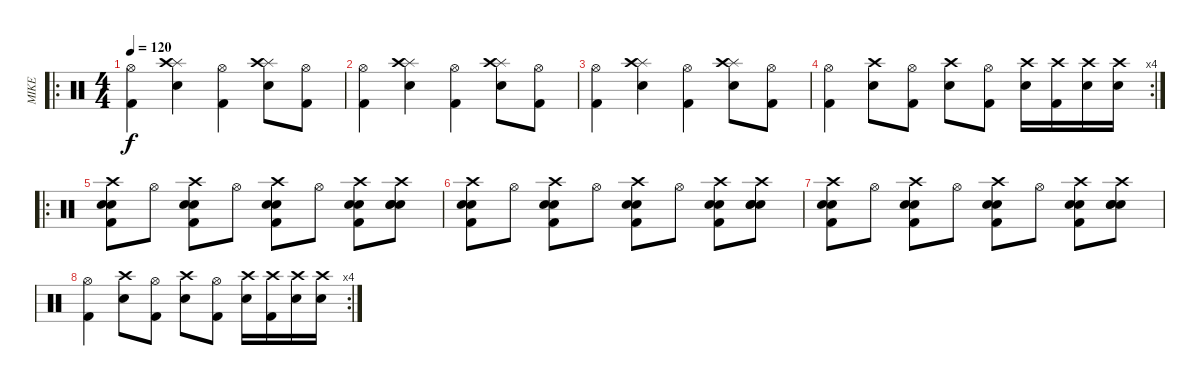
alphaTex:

\track ("MIKE" "MIKE") {instrument percussion}
\staff {score}
\articulation defaults
\ro
\ts (4 4)
\tempo 120
\clef neutral
\ks c
("Hi-Hat (open)" "Kick (hit) 2").4{dy f} ("Splash (hit)" "Crash high (hit)" "Snare (hit) 2").4 ("Hi-Hat (open)" "Kick (hit) 2").4 ("Splash (hit)" "Crash high (hit)" "Snare (hit) 2").8 ("Hi-Hat (open)" "Kick (hit) 2").8 |
("Hi-Hat (open)" "Kick (hit) 2").4 ("Splash (hit)" "Crash high (hit)" "Snare (hit) 2").4 ("Hi-Hat (open)" "Kick (hit) 2").4 ("Splash (hit)" "Crash high (hit)" "Snare (hit) 2").8 ("Hi-Hat (open)" "Kick (hit) 2").8 |
("Hi-Hat (open)" "Kick (hit) 2").4 ("Splash (hit)" "Crash high (hit)" "Snare (hit) 2").4 ("Hi-Hat (open)" "Kick (hit) 2").4 ("Splash (hit)" "Crash high (hit)" "Snare (hit) 2").8 ("Hi-Hat (open)" "Kick (hit) 2").8 |
\rc 4
("Hi-Hat (open)" "Kick (hit) 2").4 ("Crash high (hit)" "Snare (hit) 2").8 ("Hi-Hat (open)" "Kick (hit) 2").8 ("Crash high (hit)" "Snare (hit) 2").8 ("Hi-Hat (open)" "Kick (hit) 2").8 ("Crash high (hit)" "Snare (hit) 2").16 ("Crash high (hit)" "Kick (hit) 2").16 ("Crash high (hit)" "Snare (hit) 2").16 ("Crash high (hit)" "Snare (hit) 2").16 |
\ro
("Crash high (hit)" "Electric Snare (hit)" "Snare (hit) 2" "Kick (hit) 2").8 "Hi-Hat (open)".8 ("Crash high (hit)" "Electric Snare (hit)" "Snare (hit) 2" "Kick (hit) 2").8 "Hi-Hat (open)".8 ("Crash high (hit)" "Electric Snare (hit)" "Snare (hit) 2" "Kick (hit) 2").8 "Hi-Hat (open)".8 ("Crash high (hit)" "Electric Snare (hit)" "Snare (hit) 2" "Kick (hit) 2").8 ("Crash high (hit)" "Electric Snare (hit)" "Snare (hit) 2" "Snare (hit) 2").8 |
("Crash high (hit)" "Electric Snare (hit)" "Snare (hit) 2" "Kick (hit) 2").8 "Hi-Hat (open)".8 ("Crash high (hit)" "Electric Snare (hit)" "Snare (hit) 2" "Kick (hit) 2").8 "Hi-Hat (open)".8 ("Crash high (hit)" "Electric Snare (hit)" "Snare (hit) 2" "Kick (hit) 2").8 "Hi-Hat (open)".8 ("Crash high (hit)" "Electric Snare (hit)" "Snare (hit) 2" "Kick (hit) 2").8 ("Crash high (hit)" "Electric Snare (hit)" "Snare (hit) 2" "Snare (hit) 2").8 |
("Crash high (hit)" "Electric Snare (hit)" "Snare (hit) 2" "Kick (hit) 2").8 "Hi-Hat (open)".8 ("Crash high (hit)" "Electric Snare (hit)" "Snare (hit) 2" "Kick (hit) 2").8 "Hi-Hat (open)".8 ("Crash high (hit)" "Electric Snare (hit)" "Snare (hit) 2" "Kick (hit) 2").8 "Hi-Hat (open)".8 ("Crash high (hit)" "Electric Snare (hit)" "Snare (hit) 2" "Kick (hit) 2").8 ("Crash high (hit)" "Electric Snare (hit)" "Snare (hit) 2" "Snare (hit) 2").8 |
\rc 4
("Hi-Hat (open)" "Kick (hit) 2").4 ("Crash high (hit)" "Snare (hit) 2").8 ("Hi-Hat (open)" "Kick (hit) 2").8 ("Crash high (hit)" "Snare (hit) 2").8 ("Hi-Hat (open)" "Kick (hit) 2").8 ("Crash high (hit)" "Snare (hit) 2").16 ("Crash high (hit)" "Kick (hit) 2").16 ("Crash high (hit)" "Snare (hit) 2").16 ("Crash high (hit)" "Snare (hit) 2").16
